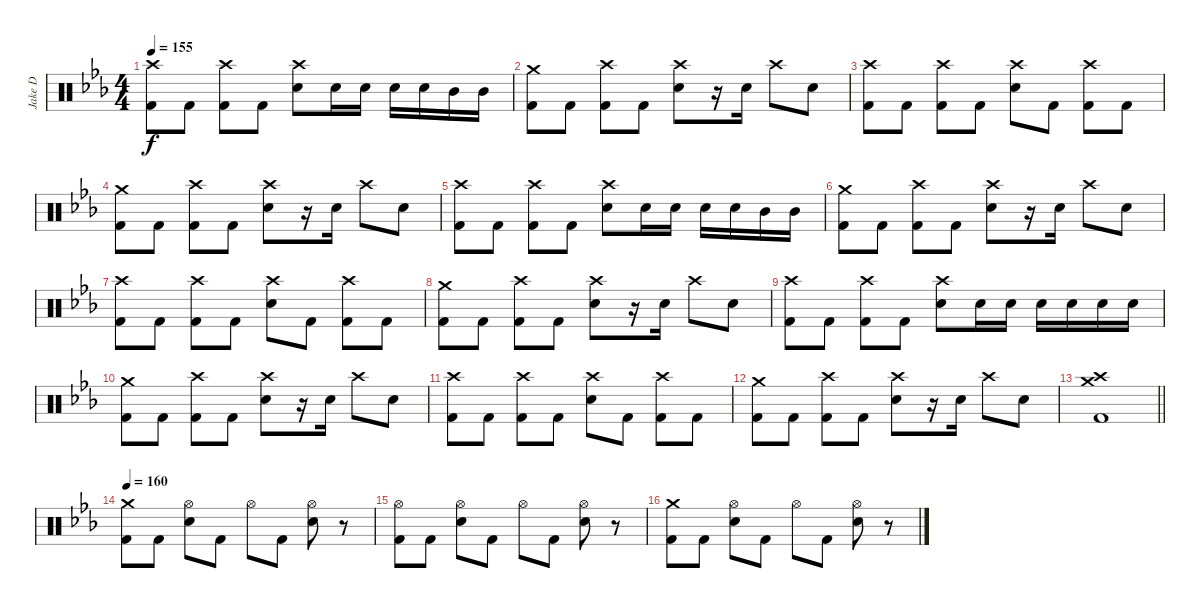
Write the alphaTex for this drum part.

\track ("Jake D" "Jake D") {instrument percussion}
\staff {score}
\articulation defaults
\ts (4 4)
\tempo 155
\clef neutral
\ks cminor
("Crash high (hit)" "Kick (hit) 2").8{dy f} "Kick (hit) 2".8 ("Crash high (hit)" "Kick (hit) 2").8 "Kick (hit) 2".8 ("Crash high (hit)" "Electric Snare (hit)").8 "Electric Snare (hit)".16 "Electric Snare (hit)".16 "Electric Snare (hit)".16 "Electric Snare (hit)".16 "Mid Tom (hit)".16 "Mid Tom (hit)".16 |
("Crash medium (hit)" "Kick (hit) 2").8 "Kick (hit) 2".8 ("Crash high (hit)" "Kick (hit) 2").8 "Kick (hit) 2".8 ("Crash high (hit)" "Electric Snare (hit)").8 r.16 "Electric Snare (hit)".16 "Crash high (hit)".8 "Electric Snare (hit)".8 |
("Crash high (hit)" "Kick (hit) 2").8 "Kick (hit) 2".8 ("Crash high (hit)" "Kick (hit) 2").8 "Kick (hit) 2".8 ("Crash high (hit)" "Electric Snare (hit)").8 "Kick (hit) 2".8 ("Crash high (hit)" "Kick (hit) 2").8 "Kick (hit) 2".8 |
("Crash medium (hit)" "Kick (hit) 2").8 "Kick (hit) 2".8 ("Crash high (hit)" "Kick (hit) 2").8 "Kick (hit) 2".8 ("Crash high (hit)" "Electric Snare (hit)").8 r.16 "Electric Snare (hit)".16 "Crash high (hit)".8 "Electric Snare (hit)".8 |
("Crash high (hit)" "Kick (hit) 2").8 "Kick (hit) 2".8 ("Crash high (hit)" "Kick (hit) 2").8 "Kick (hit) 2".8 ("Crash high (hit)" "Electric Snare (hit)").8 "Electric Snare (hit)".16 "Electric Snare (hit)".16 "Electric Snare (hit)".16 "Electric Snare (hit)".16 "Mid Tom (hit)".16 "Mid Tom (hit)".16 |
("Crash medium (hit)" "Kick (hit) 2").8 "Kick (hit) 2".8 ("Crash high (hit)" "Kick (hit) 2").8 "Kick (hit) 2".8 ("Crash high (hit)" "Electric Snare (hit)").8 r.16 "Electric Snare (hit)".16 "Crash high (hit)".8 "Electric Snare (hit)".8 |
("Crash high (hit)" "Kick (hit) 2").8 "Kick (hit) 2".8 ("Crash high (hit)" "Kick (hit) 2").8 "Kick (hit) 2".8 ("Crash high (hit)" "Electric Snare (hit)").8 "Kick (hit) 2".8 ("Crash high (hit)" "Kick (hit) 2").8 "Kick (hit) 2".8 |
("Crash medium (hit)" "Kick (hit) 2").8 "Kick (hit) 2".8 ("Crash high (hit)" "Kick (hit) 2").8 "Kick (hit) 2".8 ("Crash high (hit)" "Electric Snare (hit)").8 r.16 "Electric Snare (hit)".16 "Crash high (hit)".8 "Electric Snare (hit)".8 |
("Crash high (hit)" "Kick (hit) 2").8 "Kick (hit) 2".8 ("Crash high (hit)" "Kick (hit) 2").8 "Kick (hit) 2".8 ("Crash high (hit)" "Electric Snare (hit)").8 "Electric Snare (hit)".16 "Electric Snare (hit)".16 "Electric Snare (hit)".16 "Electric Snare (hit)".16 "Electric Snare (hit)".16 "Electric Snare (hit)".16 |
("Crash medium (hit)" "Kick (hit) 2").8 "Kick (hit) 2".8 ("Crash high (hit)" "Kick (hit) 2").8 "Kick (hit) 2".8 ("Crash high (hit)" "Electric Snare (hit)").8 r.16 "Electric Snare (hit)".16 "Crash high (hit)".8 "Electric Snare (hit)".8 |
("Crash high (hit)" "Kick (hit) 2").8 "Kick (hit) 2".8 ("Crash high (hit)" "Kick (hit) 2").8 "Kick (hit) 2".8 ("Crash high (hit)" "Electric Snare (hit)").8 "Kick (hit) 2".8 ("Crash high (hit)" "Kick (hit) 2").8 "Kick (hit) 2".8 |
("Crash medium (hit)" "Kick (hit) 2").8 "Kick (hit) 2".8 ("Crash high (hit)" "Kick (hit) 2").8 "Kick (hit) 2".8 ("Crash high (hit)" "Electric Snare (hit)").8 r.16 "Electric Snare (hit)".16 "Crash high (hit)".8 "Electric Snare (hit)".8 |
\barLineRight lightlight
("Crash high (hit)" "Crash medium (hit)" "Kick (hit) 2").1 |
\tempo 160
("Crash medium (hit)" "Kick (hit) 2").8 "Kick (hit) 2".8 ("Hi-Hat (open)" "Electric Snare (hit)").8 "Kick (hit) 2".8 "Hi-Hat (open)".8 "Kick (hit) 2".8 ("Hi-Hat (open)" "Electric Snare (hit)").8 r.8 |
("Hi-Hat (open)" "Kick (hit) 2").8 "Kick (hit) 2".8 ("Hi-Hat (open)" "Electric Snare (hit)").8 "Kick (hit) 2".8 "Hi-Hat (open)".8 "Kick (hit) 2".8 ("Hi-Hat (open)" "Electric Snare (hit)").8 r.8 |
("Crash medium (hit)" "Kick (hit) 2").8 "Kick (hit) 2".8 ("Hi-Hat (open)" "Electric Snare (hit)").8 "Kick (hit) 2".8 "Hi-Hat (open)".8 "Kick (hit) 2".8 ("Hi-Hat (open)" "Electric Snare (hit)").8 r.8
